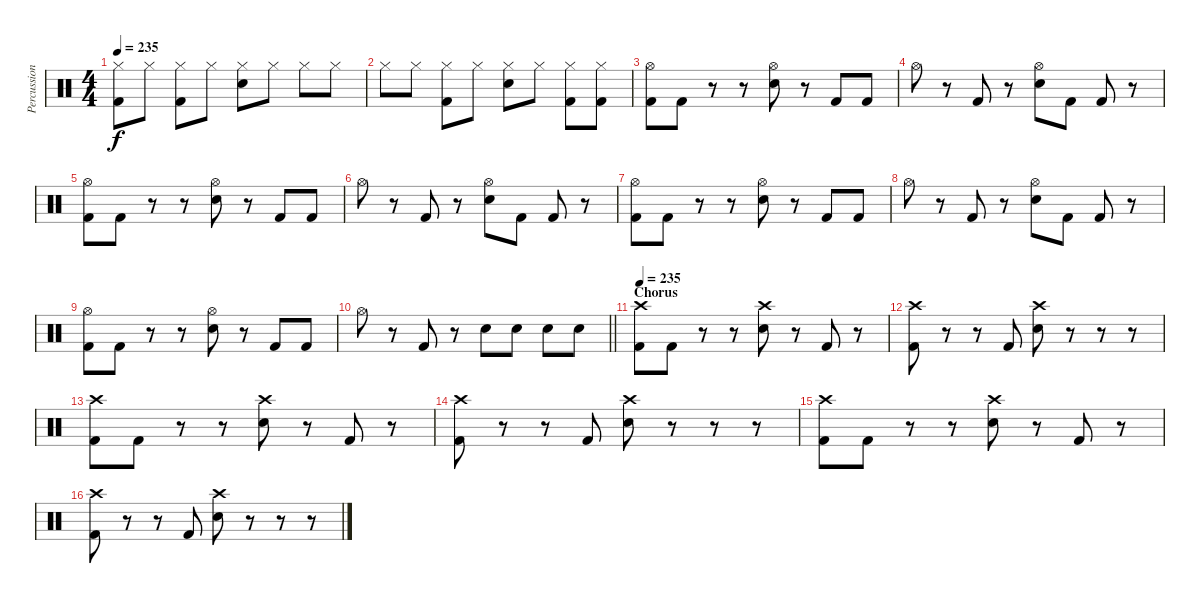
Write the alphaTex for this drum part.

\track ("Percussion" "Percussion") {instrument percussion}
\staff {score}
\articulation defaults
\ts (4 4)
\tempo 235
\clef neutral
\ks c
("Hi-Hat (closed)" "Kick (hit) 2").8{dy f} "Hi-Hat (closed)".8 ("Hi-Hat (closed)" "Kick (hit) 2").8 "Hi-Hat (closed)".8 ("Hi-Hat (closed)" "Snare (hit) 2").8 "Hi-Hat (closed)".8 "Hi-Hat (closed)".8 "Hi-Hat (closed)".8 |
"Hi-Hat (closed)".8 "Hi-Hat (closed)".8 ("Hi-Hat (closed)" "Kick (hit) 2").8 "Hi-Hat (closed)".8 ("Hi-Hat (closed)" "Snare (hit) 2").8 "Hi-Hat (closed)".8 ("Hi-Hat (closed)" "Kick (hit) 2").8 ("Hi-Hat (closed)" "Kick (hit) 2").8 |
("Hi-Hat (open)" "Kick (hit) 2").8 "Kick (hit) 2".8 r.8 r.8 ("Hi-Hat (open)" "Snare (hit) 2").8 r.8 "Kick (hit) 2".8 "Kick (hit) 2".8 |
"Hi-Hat (open)".8 r.8 "Kick (hit) 2".8 r.8 ("Hi-Hat (open)" "Snare (hit) 2").8 "Kick (hit) 2".8 "Kick (hit) 2".8 r.8 |
("Hi-Hat (open)" "Kick (hit) 2").8 "Kick (hit) 2".8 r.8 r.8 ("Hi-Hat (open)" "Snare (hit) 2").8 r.8 "Kick (hit) 2".8 "Kick (hit) 2".8 |
"Hi-Hat (open)".8 r.8 "Kick (hit) 2".8 r.8 ("Hi-Hat (open)" "Snare (hit) 2").8 "Kick (hit) 2".8 "Kick (hit) 2".8 r.8 |
("Hi-Hat (open)" "Kick (hit) 2").8 "Kick (hit) 2".8 r.8 r.8 ("Hi-Hat (open)" "Snare (hit) 2").8 r.8 "Kick (hit) 2".8 "Kick (hit) 2".8 |
"Hi-Hat (open)".8 r.8 "Kick (hit) 2".8 r.8 ("Hi-Hat (open)" "Snare (hit) 2").8 "Kick (hit) 2".8 "Kick (hit) 2".8 r.8 |
("Hi-Hat (open)" "Kick (hit) 2").8 "Kick (hit) 2".8 r.8 r.8 ("Hi-Hat (open)" "Snare (hit) 2").8 r.8 "Kick (hit) 2".8 "Kick (hit) 2".8 |
\barLineRight lightlight "Hi-Hat (open)".8
r.8 "Kick (hit) 2".8 r.8 "Snare (hit) 2".8 "Snare (hit) 2".8 "Snare (hit) 2".8 "Snare (hit) 2".8 |
\section ("" "Chorus")
\tempo 235
("Crash high (hit)" "Kick (hit) 2").8 "Kick (hit) 2".8 r.8 r.8 ("Crash high (hit)" "Snare (hit) 2").8 r.8 "Kick (hit) 2".8 r.8 |
("Crash high (hit)" "Kick (hit) 2").8 r.8 r.8 "Kick (hit) 2".8 ("Crash high (hit)" "Snare (hit) 2").8 r.8 r.8 r.8 |
("Crash high (hit)" "Kick (hit) 2").8 "Kick (hit) 2".8 r.8 r.8 ("Crash high (hit)" "Snare (hit) 2").8 r.8 "Kick (hit) 2".8 r.8 |
("Crash high (hit)" "Kick (hit) 2").8 r.8 r.8 "Kick (hit) 2".8 ("Crash high (hit)" "Snare (hit) 2").8 r.8 r.8 r.8 |
("Crash high (hit)" "Kick (hit) 2").8 "Kick (hit) 2".8 r.8 r.8 ("Crash high (hit)" "Snare (hit) 2").8 r.8 "Kick (hit) 2".8 r.8 |
("Crash high (hit)" "Kick (hit) 2").8 r.8 r.8 "Kick (hit) 2".8 ("Crash high (hit)" "Snare (hit) 2").8 r.8 r.8 r.8
